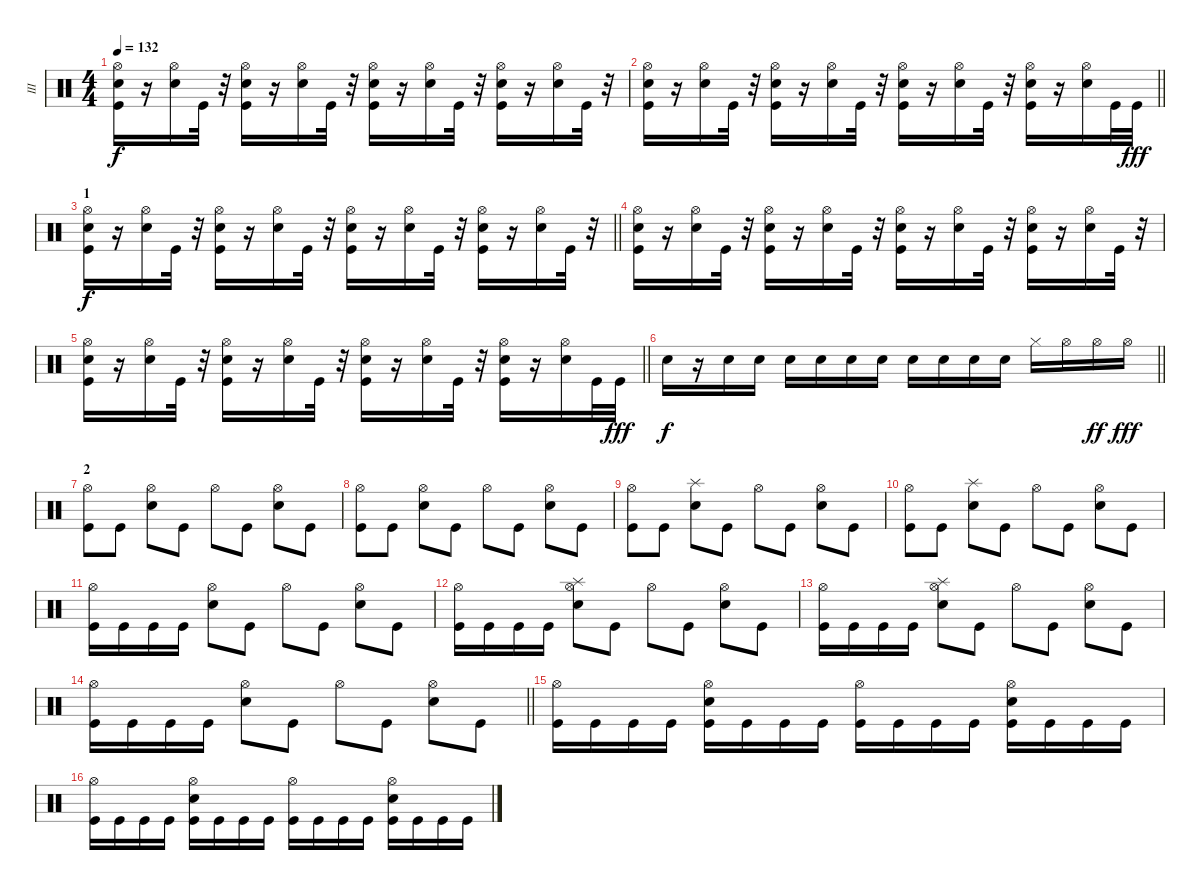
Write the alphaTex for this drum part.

\track ("III" "III") {instrument percussion}
\staff {score}
\articulation defaults
\ts (4 4)
\tempo 132
\clef neutral
\ks c
("Hi-Hat (open)" "Kick (hit)" "Snare (hit) 2").16{dy f} r.16 ("Hi-Hat (open)" "Snare (hit) 2").16 "Kick (hit)".32 r.32 ("Hi-Hat (open)" "Kick (hit)" "Snare (hit) 2").16 r.16 ("Hi-Hat (open)" "Snare (hit) 2").16 "Kick (hit)".32 r.32 ("Hi-Hat (open)" "Kick (hit)" "Snare (hit) 2").16 r.16 ("Hi-Hat (open)" "Snare (hit) 2").16 "Kick (hit)".32 r.32 ("Hi-Hat (open)" "Kick (hit)" "Snare (hit) 2").16 r.16 ("Hi-Hat (open)" "Snare (hit) 2").16 "Kick (hit)".32 r.32 |
\barLineRight lightlight
("Hi-Hat (open)" "Kick (hit)" "Snare (hit) 2").16 r.16 ("Hi-Hat (open)" "Snare (hit) 2").16 "Kick (hit)".32 r.32 ("Hi-Hat (open)" "Kick (hit)" "Snare (hit) 2").16 r.16 ("Hi-Hat (open)" "Snare (hit) 2").16 "Kick (hit)".32 r.32 ("Hi-Hat (open)" "Kick (hit)" "Snare (hit) 2").16 r.16 ("Hi-Hat (open)" "Snare (hit) 2").16 "Kick (hit)".32 r.32 ("Hi-Hat (open)" "Kick (hit)" "Snare (hit) 2").16 r.16 ("Hi-Hat (open)" "Snare (hit) 2").16 "Kick (hit)".32 "Kick (hit)".32{dy fff} |
\section ("" "1")
\barLineRight lightlight
("Hi-Hat (open)" "Kick (hit)" "Snare (hit) 2").16{dy f} r.16 ("Hi-Hat (open)" "Snare (hit) 2").16 "Kick (hit)".32 r.32 ("Hi-Hat (open)" "Kick (hit)" "Snare (hit) 2").16 r.16 ("Hi-Hat (open)" "Snare (hit) 2").16 "Kick (hit)".32 r.32 ("Hi-Hat (open)" "Kick (hit)" "Snare (hit) 2").16 r.16 ("Hi-Hat (open)" "Snare (hit) 2").16 "Kick (hit)".32 r.32 ("Hi-Hat (open)" "Kick (hit)" "Snare (hit) 2").16 r.16 ("Hi-Hat (open)" "Snare (hit) 2").16 "Kick (hit)".32 r.32 |
("Hi-Hat (open)" "Kick (hit)" "Snare (hit) 2").16 r.16 ("Hi-Hat (open)" "Snare (hit) 2").16 "Kick (hit)".32 r.32 ("Hi-Hat (open)" "Kick (hit)" "Snare (hit) 2").16 r.16 ("Hi-Hat (open)" "Snare (hit) 2").16 "Kick (hit)".32 r.32 ("Hi-Hat (open)" "Kick (hit)" "Snare (hit) 2").16 r.16 ("Hi-Hat (open)" "Snare (hit) 2").16 "Kick (hit)".32 r.32 ("Hi-Hat (open)" "Kick (hit)" "Snare (hit) 2").16 r.16 ("Hi-Hat (open)" "Snare (hit) 2").16 "Kick (hit)".32 r.32 |
\barLineRight lightlight
("Hi-Hat (open)" "Kick (hit)" "Snare (hit) 2").16 r.16 ("Hi-Hat (open)" "Snare (hit) 2").16 "Kick (hit)".32 r.32 ("Hi-Hat (open)" "Kick (hit)" "Snare (hit) 2").16 r.16 ("Hi-Hat (open)" "Snare (hit) 2").16 "Kick (hit)".32 r.32 ("Hi-Hat (open)" "Kick (hit)" "Snare (hit) 2").16 r.16 ("Hi-Hat (open)" "Snare (hit) 2").16 "Kick (hit)".32 r.32 ("Hi-Hat (open)" "Kick (hit)" "Snare (hit) 2").16 r.16 ("Hi-Hat (open)" "Snare (hit) 2").16 "Kick (hit)".32 "Kick (hit)".32{dy fff} |
\barLineRight lightlight "Snare (hit) 2".16{dy f}
r.16 "Snare (hit) 2".16 "Snare (hit) 2".16 "Snare (hit) 2".16 "Snare (hit) 2".16 "Snare (hit) 2".16 "Snare (hit) 2".16 "Snare (hit) 2".16 "Snare (hit) 2".16 "Snare (hit) 2".16 "Snare (hit) 2".16 "Hi-Hat (closed)".16 "Hi-Hat (open)".16 "Hi-Hat (open)".16{dy ff} "Hi-Hat (open)".16{dy fff} |
\section ("" "2")
("Kick (hit)" "Hi-Hat (open)").8 "Kick (hit)".8 ("Snare (hit) 2" "Hi-Hat (open)").8 "Kick (hit)".8 "Hi-Hat (open)".8 "Kick (hit)".8 ("Snare (hit) 2" "Hi-Hat (open)").8 "Kick (hit)".8 |
("Kick (hit)" "Hi-Hat (open)").8 "Kick (hit)".8 ("Snare (hit) 2" "Hi-Hat (open)").8 "Kick (hit)".8 "Hi-Hat (open)".8 "Kick (hit)".8 ("Snare (hit) 2" "Hi-Hat (open)").8 "Kick (hit)".8 |
("Kick (hit)" "Hi-Hat (open)").8 "Kick (hit)".8 ("Snare (hit) 2" "Splash (hit)").8 "Kick (hit)".8 "Hi-Hat (open)".8 "Kick (hit)".8 ("Snare (hit) 2" "Hi-Hat (open)").8 "Kick (hit)".8 |
("Kick (hit)" "Hi-Hat (open)").8 "Kick (hit)".8 ("Snare (hit) 2" "Splash (hit)").8 "Kick (hit)".8 "Hi-Hat (open)".8 "Kick (hit)".8 ("Snare (hit) 2" "Hi-Hat (open)").8 "Kick (hit)".8 |
("Kick (hit)" "Hi-Hat (open)").16 "Kick (hit)".16 "Kick (hit)".16 "Kick (hit)".16 ("Snare (hit) 2" "Hi-Hat (open)").8 "Kick (hit)".8 "Hi-Hat (open)".8 "Kick (hit)".8 ("Snare (hit) 2" "Hi-Hat (open)").8 "Kick (hit)".8 |
("Kick (hit)" "Hi-Hat (open)").16 "Kick (hit)".16 "Kick (hit)".16 "Kick (hit)".16 ("Splash (hit)" "Snare (hit) 2" "Hi-Hat (open)").8 "Kick (hit)".8 "Hi-Hat (open)".8 "Kick (hit)".8 ("Snare (hit) 2" "Hi-Hat (open)").8 "Kick (hit)".8 |
("Kick (hit)" "Hi-Hat (open)").16 "Kick (hit)".16 "Kick (hit)".16 "Kick (hit)".16 ("Splash (hit)" "Snare (hit) 2" "Hi-Hat (open)").8 "Kick (hit)".8 "Hi-Hat (open)".8 "Kick (hit)".8 ("Snare (hit) 2" "Hi-Hat (open)").8 "Kick (hit)".8 |
\barLineRight lightlight
("Kick (hit)" "Hi-Hat (open)").16 "Kick (hit)".16 "Kick (hit)".16 "Kick (hit)".16 ("Snare (hit) 2" "Hi-Hat (open)").8 "Kick (hit)".8 "Hi-Hat (open)".8 "Kick (hit)".8 ("Snare (hit) 2" "Hi-Hat (open)").8 "Kick (hit)".8 |
("Kick (hit)" "Hi-Hat (open)").16 "Kick (hit)".16 "Kick (hit)".16 "Kick (hit)".16 ("Kick (hit)" "Snare (hit) 2" "Hi-Hat (open)").16 "Kick (hit)".16 "Kick (hit)".16 "Kick (hit)".16 ("Kick (hit)" "Hi-Hat (open)").16 "Kick (hit)".16 "Kick (hit)".16 "Kick (hit)".16 ("Kick (hit)" "Snare (hit) 2" "Hi-Hat (open)").16 "Kick (hit)".16 "Kick (hit)".16 "Kick (hit)".16 |
("Kick (hit)" "Hi-Hat (open)").16 "Kick (hit)".16 "Kick (hit)".16 "Kick (hit)".16 ("Kick (hit)" "Snare (hit) 2" "Hi-Hat (open)").16 "Kick (hit)".16 "Kick (hit)".16 "Kick (hit)".16 ("Kick (hit)" "Hi-Hat (open)").16 "Kick (hit)".16 "Kick (hit)".16 "Kick (hit)".16 ("Kick (hit)" "Snare (hit) 2" "Hi-Hat (open)").16 "Kick (hit)".16 "Kick (hit)".16 "Kick (hit)".16
